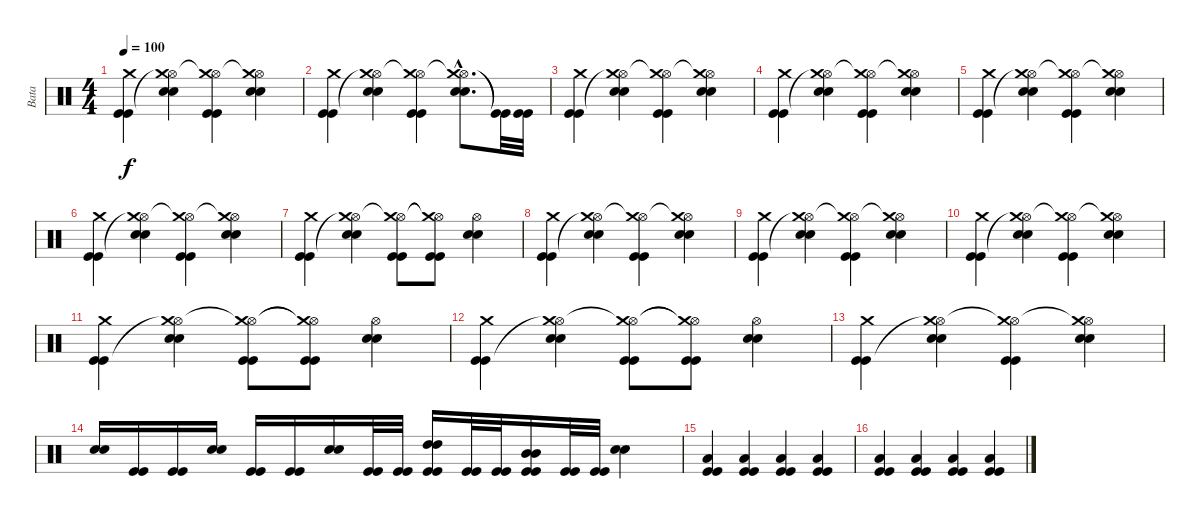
\track ("Bata" "Bata") {instrument percussion}
\staff {score}
\articulation defaults
\ts (4 4)
\tempo 100
\clef neutral
\ks c
("Crash medium (hit)" "Kick (hit)" "Kick (hit)").4{dy f} ("Hi-Hat (open)" "Crash medium (hit)"{t} "Electric Snare (hit)" "Electric Snare (hit)").4 ("Hi-Hat (open)" "Crash medium (hit)"{t} "Kick (hit)" "Kick (hit)").4 ("Hi-Hat (open)" "Crash medium (hit)"{t} "Electric Snare (hit)" "Electric Snare (hit)").4 |
("Crash medium (hit)" "Kick (hit)" "Kick (hit)").4 ("Hi-Hat (open)" "Crash medium (hit)"{t} "Electric Snare (hit)" "Electric Snare (hit)").4 ("Hi-Hat (open)" "Crash medium (hit)"{t} "Kick (hit)" "Kick (hit)").4 ("Hi-Hat (open)"{hac} "Crash medium (hit)"{hac t} "Electric Snare (hit)"{hac} "Electric Snare (hit)"{hac}).8{d} ("Kick (hit)"{t} "Kick (hit)"{t}).32 ("Kick (hit)" "Kick (hit)").32 |
("Crash medium (hit)" "Kick (hit)" "Kick (hit)").4 ("Hi-Hat (open)" "Crash medium (hit)"{t} "Electric Snare (hit)" "Electric Snare (hit)").4 ("Hi-Hat (open)" "Crash medium (hit)"{t} "Kick (hit)" "Kick (hit)").4 ("Hi-Hat (open)" "Crash medium (hit)"{t} "Electric Snare (hit)" "Electric Snare (hit)").4 |
("Crash medium (hit)" "Kick (hit)" "Kick (hit)").4 ("Hi-Hat (open)" "Crash medium (hit)"{t} "Electric Snare (hit)" "Electric Snare (hit)").4 ("Hi-Hat (open)" "Crash medium (hit)"{t} "Kick (hit)" "Kick (hit)").4 ("Hi-Hat (open)" "Crash medium (hit)"{t} "Electric Snare (hit)" "Electric Snare (hit)").4 |
("Crash medium (hit)" "Kick (hit)" "Kick (hit)").4 ("Hi-Hat (open)" "Crash medium (hit)"{t} "Electric Snare (hit)" "Electric Snare (hit)").4 ("Hi-Hat (open)" "Crash medium (hit)"{t} "Kick (hit)" "Kick (hit)").4 ("Hi-Hat (open)" "Crash medium (hit)"{t} "Electric Snare (hit)" "Electric Snare (hit)").4 |
("Crash medium (hit)" "Kick (hit)" "Kick (hit)").4 ("Hi-Hat (open)" "Crash medium (hit)"{t} "Electric Snare (hit)" "Electric Snare (hit)").4 ("Hi-Hat (open)" "Crash medium (hit)"{t} "Kick (hit)" "Kick (hit)").4 ("Hi-Hat (open)" "Crash medium (hit)"{t} "Electric Snare (hit)" "Electric Snare (hit)").4 |
("Crash medium (hit)" "Kick (hit)" "Kick (hit)").4 ("Hi-Hat (open)" "Crash medium (hit)"{t} "Electric Snare (hit)" "Electric Snare (hit)").4 ("Hi-Hat (open)" "Crash medium (hit)"{t} "Kick (hit)" "Kick (hit)").8 ("Hi-Hat (open)"{t} "Crash medium (hit)"{t} "Kick (hit)" "Kick (hit)").8 ("Hi-Hat (open)" "Electric Snare (hit)" "Electric Snare (hit)").4 |
("Crash medium (hit)" "Kick (hit)" "Kick (hit)").4 ("Hi-Hat (open)" "Crash medium (hit)"{t} "Electric Snare (hit)" "Electric Snare (hit)").4 ("Hi-Hat (open)" "Crash medium (hit)"{t} "Kick (hit)" "Kick (hit)").4 ("Hi-Hat (open)" "Crash medium (hit)"{t} "Electric Snare (hit)" "Electric Snare (hit)").4 |
("Crash medium (hit)" "Kick (hit)" "Kick (hit)").4 ("Hi-Hat (open)" "Crash medium (hit)"{t} "Electric Snare (hit)" "Electric Snare (hit)").4 ("Hi-Hat (open)" "Crash medium (hit)"{t} "Kick (hit)" "Kick (hit)").4 ("Hi-Hat (open)" "Crash medium (hit)"{t} "Electric Snare (hit)" "Electric Snare (hit)").4 |
("Crash medium (hit)" "Kick (hit)" "Kick (hit)").4 ("Hi-Hat (open)" "Crash medium (hit)"{t} "Electric Snare (hit)" "Electric Snare (hit)").4 ("Hi-Hat (open)" "Crash medium (hit)"{t} "Kick (hit)" "Kick (hit)").4 ("Hi-Hat (open)" "Crash medium (hit)"{t} "Electric Snare (hit)" "Electric Snare (hit)").4 |
("Crash medium (hit)" "Kick (hit)" "Kick (hit)").4 ("Hi-Hat (open)" "Crash medium (hit)"{t} "Electric Snare (hit)" "Electric Snare (hit)").4 ("Hi-Hat (open)" "Crash medium (hit)"{t} "Kick (hit)" "Kick (hit)").8 ("Hi-Hat (open)"{t} "Crash medium (hit)"{t} "Kick (hit)" "Kick (hit)").8 ("Hi-Hat (open)" "Electric Snare (hit)" "Electric Snare (hit)").4 |
("Crash medium (hit)" "Kick (hit)" "Kick (hit)").4 ("Hi-Hat (open)" "Crash medium (hit)"{t} "Electric Snare (hit)" "Electric Snare (hit)").4 ("Hi-Hat (open)" "Crash medium (hit)"{t} "Kick (hit)" "Kick (hit)").8 ("Hi-Hat (open)"{t} "Crash medium (hit)"{t} "Kick (hit)" "Kick (hit)").8 ("Hi-Hat (open)" "Electric Snare (hit)" "Electric Snare (hit)").4 |
("Crash medium (hit)" "Kick (hit)" "Kick (hit)").4 ("Hi-Hat (open)" "Crash medium (hit)"{t} "Electric Snare (hit)" "Electric Snare (hit)").4 ("Hi-Hat (open)" "Crash medium (hit)"{t} "Kick (hit)" "Kick (hit)").4 ("Hi-Hat (open)" "Crash medium (hit)"{t} "Electric Snare (hit)" "Electric Snare (hit)").4 |
("Electric Snare (hit)" "Electric Snare (hit)").16 ("Kick (hit)" "Kick (hit)").16 ("Kick (hit)" "Kick (hit)").16 ("Electric Snare (hit)" "Electric Snare (hit)").16 ("Kick (hit)" "Kick (hit)").16 ("Kick (hit)" "Kick (hit)").16 ("Electric Snare (hit)" "Electric Snare (hit)").16 ("Kick (hit)" "Kick (hit)").32 ("Kick (hit)" "Kick (hit)").32 ("High Tom (hit)" "High Tom (hit)" "Kick (hit)" "Kick (hit)").16 ("Kick (hit)" "Kick (hit)").32 ("Kick (hit)" "Kick (hit)").32 ("Mid Tom (hit)" "Mid Tom (hit)" "Kick (hit)" "Kick (hit)").16 ("Kick (hit)" "Kick (hit)").32 ("Kick (hit)" "Kick (hit)").32 ("Electric Snare (hit)" "Electric Snare (hit)").4 |
("Low Floor Tom (hit)" "Kick (hit)" "Kick (hit)").4 ("Low Floor Tom (hit)" "Kick (hit)" "Kick (hit)").4 ("Low Floor Tom (hit)" "Kick (hit)" "Kick (hit)").4 ("Low Floor Tom (hit)" "Kick (hit)" "Kick (hit)").4 |
("Low Floor Tom (hit)" "Kick (hit)" "Kick (hit)").4 ("Low Floor Tom (hit)" "Kick (hit)" "Kick (hit)").4 ("Low Floor Tom (hit)" "Kick (hit)" "Kick (hit)").4 ("Low Floor Tom (hit)" "Kick (hit)" "Kick (hit)").4
